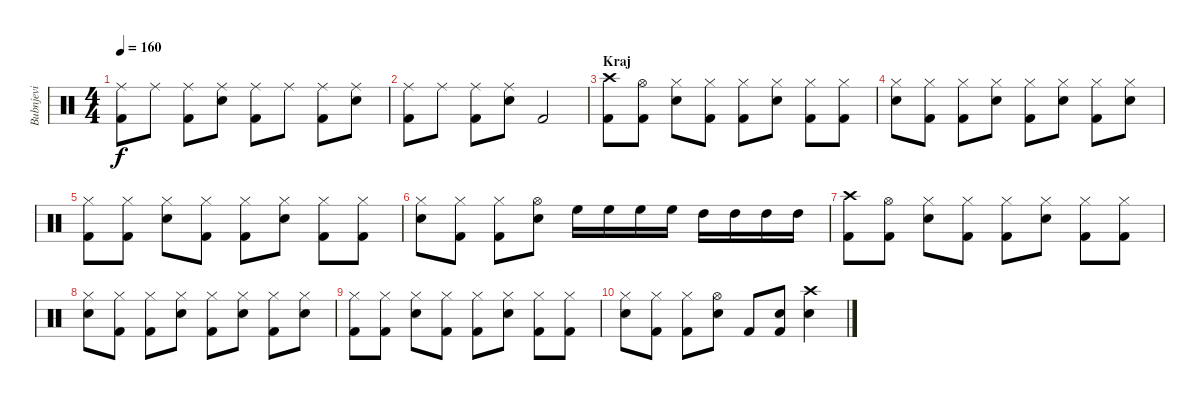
\track ("Bubnjevi" "Bubnjevi") {instrument percussion}
\staff {score}
\articulation defaults
\ts (4 4)
\tempo 160
\clef neutral
\ks c
("Ride (middle)" "Kick (hit) 2").8{dy f} "Ride (middle)".8 ("Ride (middle)" "Kick (hit) 2").8 ("Ride (middle)" "Snare (hit) 2").8 ("Ride (middle)" "Kick (hit) 2").8 "Ride (middle)".8 ("Ride (middle)" "Kick (hit) 2").8 ("Ride (middle)" "Snare (hit) 2").8 |
("Ride (middle)" "Kick (hit) 2").8 "Ride (middle)".8 ("Ride (middle)" "Kick (hit) 2").8 ("Ride (middle)" "Snare (hit) 2").8 "Kick (hit) 2".2 |
\section ("" "Kraj")
("Crash high (hit)" "Kick (hit) 2").8 ("Hi-Hat (open)" "Kick (hit) 2").8 ("Hi-Hat (closed)" "Snare (hit) 2").8 ("Hi-Hat (closed)" "Kick (hit) 2").8 ("Hi-Hat (closed)" "Kick (hit) 2").8 ("Hi-Hat (closed)" "Snare (hit) 2").8 ("Hi-Hat (closed)" "Kick (hit) 2").8 ("Hi-Hat (closed)" "Kick (hit) 2").8 |
("Hi-Hat (closed)" "Snare (hit) 2").8 ("Hi-Hat (closed)" "Kick (hit) 2").8 ("Hi-Hat (closed)" "Kick (hit) 2").8 ("Hi-Hat (closed)" "Snare (hit) 2").8 ("Hi-Hat (closed)" "Kick (hit) 2").8 ("Hi-Hat (closed)" "Snare (hit) 2").8 ("Hi-Hat (closed)" "Kick (hit) 2").8 ("Hi-Hat (closed)" "Snare (hit) 2").8 |
("Hi-Hat (closed)" "Kick (hit) 2").8 ("Hi-Hat (closed)" "Kick (hit) 2").8 ("Hi-Hat (closed)" "Snare (hit) 2").8 ("Hi-Hat (closed)" "Kick (hit) 2").8 ("Hi-Hat (closed)" "Kick (hit) 2").8 ("Hi-Hat (closed)" "Snare (hit) 2").8 ("Hi-Hat (closed)" "Kick (hit) 2").8 ("Hi-Hat (closed)" "Kick (hit) 2").8 |
("Hi-Hat (closed)" "Snare (hit) 2").8 ("Hi-Hat (closed)" "Kick (hit) 2").8 ("Hi-Hat (closed)" "Kick (hit) 2").8 ("Hi-Hat (open)" "Snare (hit) 2").8 "High Floor Tom (hit)".16 "High Floor Tom (hit)".16 "High Floor Tom (hit)".16 "High Floor Tom (hit)".16 "High Tom (hit)".16 "High Tom (hit)".16 "High Tom (hit)".16 "High Tom (hit)".16 |
("Crash high (hit)" "Kick (hit) 2").8 ("Hi-Hat (open)" "Kick (hit) 2").8 ("Hi-Hat (closed)" "Snare (hit) 2").8 ("Hi-Hat (closed)" "Kick (hit) 2").8 ("Hi-Hat (closed)" "Kick (hit) 2").8 ("Hi-Hat (closed)" "Snare (hit) 2").8 ("Hi-Hat (closed)" "Kick (hit) 2").8 ("Hi-Hat (closed)" "Kick (hit) 2").8 |
("Hi-Hat (closed)" "Snare (hit) 2").8 ("Hi-Hat (closed)" "Kick (hit) 2").8 ("Hi-Hat (closed)" "Kick (hit) 2").8 ("Hi-Hat (closed)" "Snare (hit) 2").8 ("Hi-Hat (closed)" "Kick (hit) 2").8 ("Hi-Hat (closed)" "Snare (hit) 2").8 ("Hi-Hat (closed)" "Kick (hit) 2").8 ("Hi-Hat (closed)" "Snare (hit) 2").8 |
("Hi-Hat (closed)" "Kick (hit) 2").8 ("Hi-Hat (closed)" "Kick (hit) 2").8 ("Hi-Hat (closed)" "Snare (hit) 2").8 ("Hi-Hat (closed)" "Kick (hit) 2").8 ("Hi-Hat (closed)" "Kick (hit) 2").8 ("Hi-Hat (closed)" "Snare (hit) 2").8 ("Hi-Hat (closed)" "Kick (hit) 2").8 ("Hi-Hat (closed)" "Kick (hit) 2").8 |
("Hi-Hat (closed)" "Snare (hit) 2").8 ("Hi-Hat (closed)" "Kick (hit) 2").8 ("Hi-Hat (closed)" "Kick (hit) 2").8 ("Hi-Hat (open)" "Snare (hit) 2").8 "Kick (hit) 2".8 ("Snare (hit) 2" "Kick (hit) 2").8 ("Crash high (hit)" "Snare (hit) 2").4
